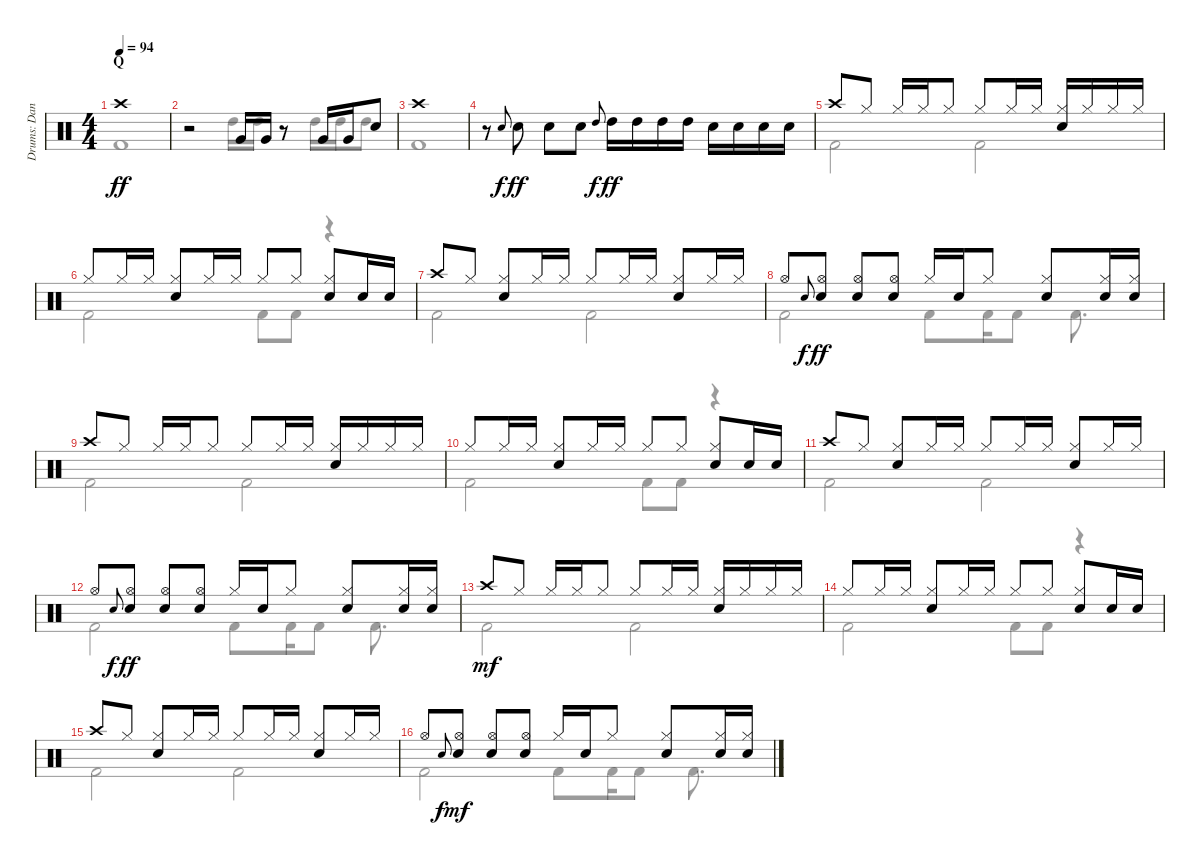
\track ("Drums: Dana" "Drums: Dan") {instrument percussion}
\staff {score}
\articulation defaults
\voice
\ts (4 4)
\section ("" "Q")
\tempo 94
\clef neutral
\ks c "Crash high (hit)".1{dy ff}
|
r.2 "Very Low Tom (hit)".16 "Very Low Tom (hit)".16 r.8 "Very Low Tom (hit)".16 "Very Low Tom (hit)".16 "Electric Snare (hit)".8 |
"Crash high (hit)".1 |
r.8 "Electric Snare (hit)".8{gr onbeat dy f} "Snare (hit) 2".8{dy ff} "Snare (hit) 2".8 "Snare (hit) 2".8 "High Tom (hit)".8{gr onbeat dy f} "High Tom (hit)".16{dy ff} "High Tom (hit)".16 "High Tom (hit)".16 "High Tom (hit)".16 "Snare (hit) 2".16 "Snare (hit) 2".16 "Snare (hit) 2".16 "Snare (hit) 2".16 |
"Crash high (hit)".8 "Hi-Hat (closed)".8 "Hi-Hat (closed)".16 "Hi-Hat (closed)".16 "Hi-Hat (closed)".8 "Hi-Hat (closed)".8 "Hi-Hat (closed)".16 "Hi-Hat (closed)".16 ("Hi-Hat (closed)" "Snare (hit) 2").16 "Hi-Hat (closed)".16 "Hi-Hat (closed)".16 "Hi-Hat (closed)".16 |
"Hi-Hat (closed)".8 "Hi-Hat (closed)".16 "Hi-Hat (closed)".16 ("Hi-Hat (closed)" "Snare (hit) 2").8 "Hi-Hat (closed)".16 "Hi-Hat (closed)".16 "Hi-Hat (closed)".8 "Hi-Hat (closed)".8 ("Hi-Hat (closed)" "Snare (hit) 2").8 "Snare (hit) 2".16 "Snare (hit) 2".16 |
"Crash high (hit)".8 "Hi-Hat (closed)".8 ("Hi-Hat (closed)" "Snare (hit) 2").8 "Hi-Hat (closed)".16 "Hi-Hat (closed)".16 "Hi-Hat (closed)".8 "Hi-Hat (closed)".16 "Hi-Hat (closed)".16 ("Hi-Hat (closed)" "Snare (hit) 2").8 "Hi-Hat (closed)".16 "Hi-Hat (closed)".16 |
"Hi-Hat (open)".8 "Electric Snare (hit)".8{gr onbeat dy f} ("Hi-Hat (open)" "Snare (hit) 2").8{dy ff} ("Hi-Hat (open)" "Snare (hit) 2").8 ("Hi-Hat (open)" "Snare (hit) 2").8 "Hi-Hat (closed)".16 "Snare (hit) 2".16 "Hi-Hat (closed)".8 ("Hi-Hat (closed)" "Snare (hit) 2").8 ("Hi-Hat (closed)" "Snare (hit) 2").16 ("Hi-Hat (closed)" "Snare (hit) 2").16 |
"Crash high (hit)".8 "Hi-Hat (closed)".8 "Hi-Hat (closed)".16 "Hi-Hat (closed)".16 "Hi-Hat (closed)".8 "Hi-Hat (closed)".8 "Hi-Hat (closed)".16 "Hi-Hat (closed)".16 ("Hi-Hat (closed)" "Snare (hit) 2").16 "Hi-Hat (closed)".16 "Hi-Hat (closed)".16 "Hi-Hat (closed)".16 |
"Hi-Hat (closed)".8 "Hi-Hat (closed)".16 "Hi-Hat (closed)".16 ("Hi-Hat (closed)" "Snare (hit) 2").8 "Hi-Hat (closed)".16 "Hi-Hat (closed)".16 "Hi-Hat (closed)".8 "Hi-Hat (closed)".8 ("Hi-Hat (closed)" "Snare (hit) 2").8 "Snare (hit) 2".16 "Snare (hit) 2".16 |
"Crash high (hit)".8 "Hi-Hat (closed)".8 ("Hi-Hat (closed)" "Snare (hit) 2").8 "Hi-Hat (closed)".16 "Hi-Hat (closed)".16 "Hi-Hat (closed)".8 "Hi-Hat (closed)".16 "Hi-Hat (closed)".16 ("Hi-Hat (closed)" "Snare (hit) 2").8 "Hi-Hat (closed)".16 "Hi-Hat (closed)".16 |
"Hi-Hat (open)".8 "Electric Snare (hit)".8{gr onbeat dy f} ("Hi-Hat (open)" "Snare (hit) 2").8{dy ff} ("Hi-Hat (open)" "Snare (hit) 2").8 ("Hi-Hat (open)" "Snare (hit) 2").8 "Hi-Hat (closed)".16 "Snare (hit) 2".16 "Hi-Hat (closed)".8 ("Hi-Hat (closed)" "Snare (hit) 2").8 ("Hi-Hat (closed)" "Snare (hit) 2").16 ("Hi-Hat (closed)" "Snare (hit) 2").16 |
"Crash high (hit)".8{dy mf volume 8} "Hi-Hat (closed)".8 "Hi-Hat (closed)".16 "Hi-Hat (closed)".16 "Hi-Hat (closed)".8 "Hi-Hat (closed)".8 "Hi-Hat (closed)".16 "Hi-Hat (closed)".16 ("Hi-Hat (closed)" "Snare (hit) 2").16 "Hi-Hat (closed)".16 "Hi-Hat (closed)".16 "Hi-Hat (closed)".16 |
"Hi-Hat (closed)".8 "Hi-Hat (closed)".16 "Hi-Hat (closed)".16 ("Hi-Hat (closed)" "Snare (hit) 2").8 "Hi-Hat (closed)".16 "Hi-Hat (closed)".16 "Hi-Hat (closed)".8 "Hi-Hat (closed)".8 ("Hi-Hat (closed)" "Snare (hit) 2").8 "Snare (hit) 2".16 "Snare (hit) 2".16 |
"Crash high (hit)".8 "Hi-Hat (closed)".8 ("Hi-Hat (closed)" "Snare (hit) 2").8 "Hi-Hat (closed)".16 "Hi-Hat (closed)".16 "Hi-Hat (closed)".8 "Hi-Hat (closed)".16 "Hi-Hat (closed)".16 ("Hi-Hat (closed)" "Snare (hit) 2").8 "Hi-Hat (closed)".16 "Hi-Hat (closed)".16 |
"Hi-Hat (open)".8 "Electric Snare (hit)".8{gr onbeat dy f} ("Hi-Hat (open)" "Snare (hit) 2").8{dy mf} ("Hi-Hat (open)" "Snare (hit) 2").8 ("Hi-Hat (open)" "Snare (hit) 2").8 "Hi-Hat (closed)".16 "Snare (hit) 2".16 "Hi-Hat (closed)".8 ("Hi-Hat (closed)" "Snare (hit) 2").8 ("Hi-Hat (closed)" "Snare (hit) 2").16 ("Hi-Hat (closed)" "Snare (hit) 2").16
\voice
\clef neutral
\ottava regular
\simile none
\ks c "Kick (hit) 2".1{dy ff}
|
r.2 "High Tom (hit)".16 "High Tom (hit)".16 r.8 "High Tom (hit)".16 "High Tom (hit)".16 "High Tom (hit)".8 |
"Kick (hit) 2".1 |
|
"Kick (hit) 2".2 "Kick (hit) 2".2 |
"Kick (hit) 2".2 "Kick (hit) 2".8 "Kick (hit) 2".8 r.4 |
"Kick (hit) 2".2 "Kick (hit) 2".2 |
"Kick (hit) 2".2 "Kick (hit) 2".8 "Kick (hit) 2".16 "Kick (hit) 2".8 "Kick (hit) 2".8{d} |
"Kick (hit) 2".2 "Kick (hit) 2".2 |
"Kick (hit) 2".2 "Kick (hit) 2".8 "Kick (hit) 2".8 r.4 |
"Kick (hit) 2".2 "Kick (hit) 2".2 |
"Kick (hit) 2".2 "Kick (hit) 2".8 "Kick (hit) 2".16 "Kick (hit) 2".8 "Kick (hit) 2".8{d} |
"Kick (hit) 2".2{dy mf} "Kick (hit) 2".2 |
"Kick (hit) 2".2 "Kick (hit) 2".8 "Kick (hit) 2".8 r.4 |
"Kick (hit) 2".2 "Kick (hit) 2".2 |
"Kick (hit) 2".2 "Kick (hit) 2".8 "Kick (hit) 2".16 "Kick (hit) 2".8 "Kick (hit) 2".8{d}
